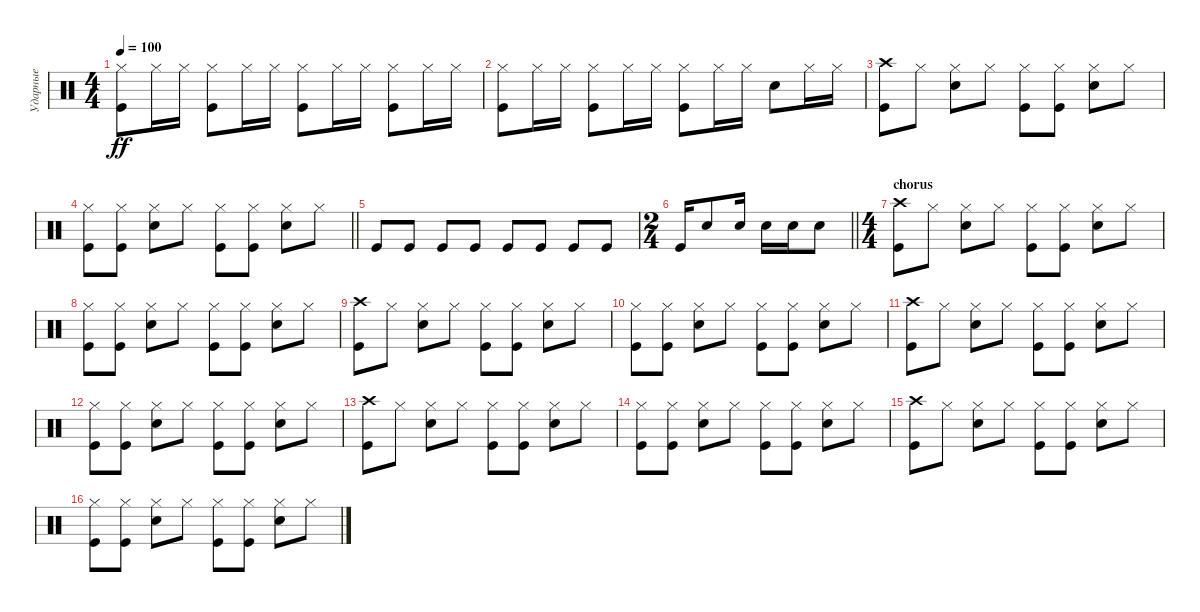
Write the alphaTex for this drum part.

\track ("Ударные" "Ударные") {instrument percussion}
\staff {score}
\articulation defaults
\ts (4 4)
\tempo 100
\clef neutral
\ks c
("Hi-Hat (closed)" "Kick (hit)").8{dy ff} "Hi-Hat (closed)".16 "Hi-Hat (closed)".16 ("Hi-Hat (closed)" "Kick (hit)").8 "Hi-Hat (closed)".16 "Hi-Hat (closed)".16 ("Hi-Hat (closed)" "Kick (hit)").8 "Hi-Hat (closed)".16 "Hi-Hat (closed)".16 ("Hi-Hat (closed)" "Kick (hit)").8 "Hi-Hat (closed)".16 "Hi-Hat (closed)".16 |
("Hi-Hat (closed)" "Kick (hit)").8 "Hi-Hat (closed)".16 "Hi-Hat (closed)".16 ("Hi-Hat (closed)" "Kick (hit)").8 "Hi-Hat (closed)".16 "Hi-Hat (closed)".16 ("Hi-Hat (closed)" "Kick (hit)").8 "Hi-Hat (closed)".16 "Hi-Hat (closed)".16 "Electric Snare (hit)".8 "Hi-Hat (closed)".16 "Hi-Hat (closed)".16 |
("Crash high (hit)" "Kick (hit)").8 "Hi-Hat (closed)".8 ("Hi-Hat (closed)" "Electric Snare (hit)").8 "Hi-Hat (closed)".8 ("Hi-Hat (closed)" "Kick (hit)").8 ("Hi-Hat (closed)" "Kick (hit)").8 ("Hi-Hat (closed)" "Electric Snare (hit)").8 "Hi-Hat (closed)".8 |
\barLineRight lightlight
("Hi-Hat (closed)" "Kick (hit)").8 ("Hi-Hat (closed)" "Kick (hit)").8 ("Hi-Hat (closed)" "Electric Snare (hit)").8 "Hi-Hat (closed)".8 ("Hi-Hat (closed)" "Kick (hit)").8 ("Hi-Hat (closed)" "Kick (hit)").8 ("Hi-Hat (closed)" "Electric Snare (hit)").8 "Hi-Hat (closed)".8 |
"Kick (hit)".8 "Kick (hit)".8 "Kick (hit)".8 "Kick (hit)".8 "Kick (hit)".8 "Kick (hit)".8 "Kick (hit)".8 "Kick (hit)".8 |
\ts (2 4)
\barLineRight lightlight "Kick (hit)".16 "Electric Snare (hit)".8 "Electric Snare (hit)".16 "Electric Snare (hit)".16 "Electric Snare (hit)".16 "Electric Snare (hit)".8
|
\ts (4 4)
\section ("" "chorus")
("Crash high (hit)" "Kick (hit)").8 "Hi-Hat (closed)".8 ("Hi-Hat (closed)" "Electric Snare (hit)").8 "Hi-Hat (closed)".8 ("Hi-Hat (closed)" "Kick (hit)").8 ("Hi-Hat (closed)" "Kick (hit)").8 ("Hi-Hat (closed)" "Electric Snare (hit)").8 "Hi-Hat (closed)".8 |
("Hi-Hat (closed)" "Kick (hit)").8 ("Hi-Hat (closed)" "Kick (hit)").8 ("Hi-Hat (closed)" "Electric Snare (hit)").8 "Hi-Hat (closed)".8 ("Hi-Hat (closed)" "Kick (hit)").8 ("Hi-Hat (closed)" "Kick (hit)").8 ("Hi-Hat (closed)" "Electric Snare (hit)").8 "Hi-Hat (closed)".8 |
("Crash high (hit)" "Kick (hit)").8 "Hi-Hat (closed)".8 ("Hi-Hat (closed)" "Electric Snare (hit)").8 "Hi-Hat (closed)".8 ("Hi-Hat (closed)" "Kick (hit)").8 ("Hi-Hat (closed)" "Kick (hit)").8 ("Hi-Hat (closed)" "Electric Snare (hit)").8 "Hi-Hat (closed)".8 |
("Hi-Hat (closed)" "Kick (hit)").8 ("Hi-Hat (closed)" "Kick (hit)").8 ("Hi-Hat (closed)" "Electric Snare (hit)").8 "Hi-Hat (closed)".8 ("Hi-Hat (closed)" "Kick (hit)").8 ("Hi-Hat (closed)" "Kick (hit)").8 ("Hi-Hat (closed)" "Electric Snare (hit)").8 "Hi-Hat (closed)".8 |
("Crash high (hit)" "Kick (hit)").8 "Hi-Hat (closed)".8 ("Hi-Hat (closed)" "Electric Snare (hit)").8 "Hi-Hat (closed)".8 ("Hi-Hat (closed)" "Kick (hit)").8 ("Hi-Hat (closed)" "Kick (hit)").8 ("Hi-Hat (closed)" "Electric Snare (hit)").8 "Hi-Hat (closed)".8 |
("Hi-Hat (closed)" "Kick (hit)").8 ("Hi-Hat (closed)" "Kick (hit)").8 ("Hi-Hat (closed)" "Electric Snare (hit)").8 "Hi-Hat (closed)".8 ("Hi-Hat (closed)" "Kick (hit)").8 ("Hi-Hat (closed)" "Kick (hit)").8 ("Hi-Hat (closed)" "Electric Snare (hit)").8 "Hi-Hat (closed)".8 |
("Crash high (hit)" "Kick (hit)").8 "Hi-Hat (closed)".8 ("Hi-Hat (closed)" "Electric Snare (hit)").8 "Hi-Hat (closed)".8 ("Hi-Hat (closed)" "Kick (hit)").8 ("Hi-Hat (closed)" "Kick (hit)").8 ("Hi-Hat (closed)" "Electric Snare (hit)").8 "Hi-Hat (closed)".8 |
("Hi-Hat (closed)" "Kick (hit)").8 ("Hi-Hat (closed)" "Kick (hit)").8 ("Hi-Hat (closed)" "Electric Snare (hit)").8 "Hi-Hat (closed)".8 ("Hi-Hat (closed)" "Kick (hit)").8 ("Hi-Hat (closed)" "Kick (hit)").8 ("Hi-Hat (closed)" "Electric Snare (hit)").8 "Hi-Hat (closed)".8 |
("Crash high (hit)" "Kick (hit)").8 "Hi-Hat (closed)".8 ("Hi-Hat (closed)" "Electric Snare (hit)").8 "Hi-Hat (closed)".8 ("Hi-Hat (closed)" "Kick (hit)").8 ("Hi-Hat (closed)" "Kick (hit)").8 ("Hi-Hat (closed)" "Electric Snare (hit)").8 "Hi-Hat (closed)".8 |
("Hi-Hat (closed)" "Kick (hit)").8 ("Hi-Hat (closed)" "Kick (hit)").8 ("Hi-Hat (closed)" "Electric Snare (hit)").8 "Hi-Hat (closed)".8 ("Hi-Hat (closed)" "Kick (hit)").8 ("Hi-Hat (closed)" "Kick (hit)").8 ("Hi-Hat (closed)" "Electric Snare (hit)").8 "Hi-Hat (closed)".8
